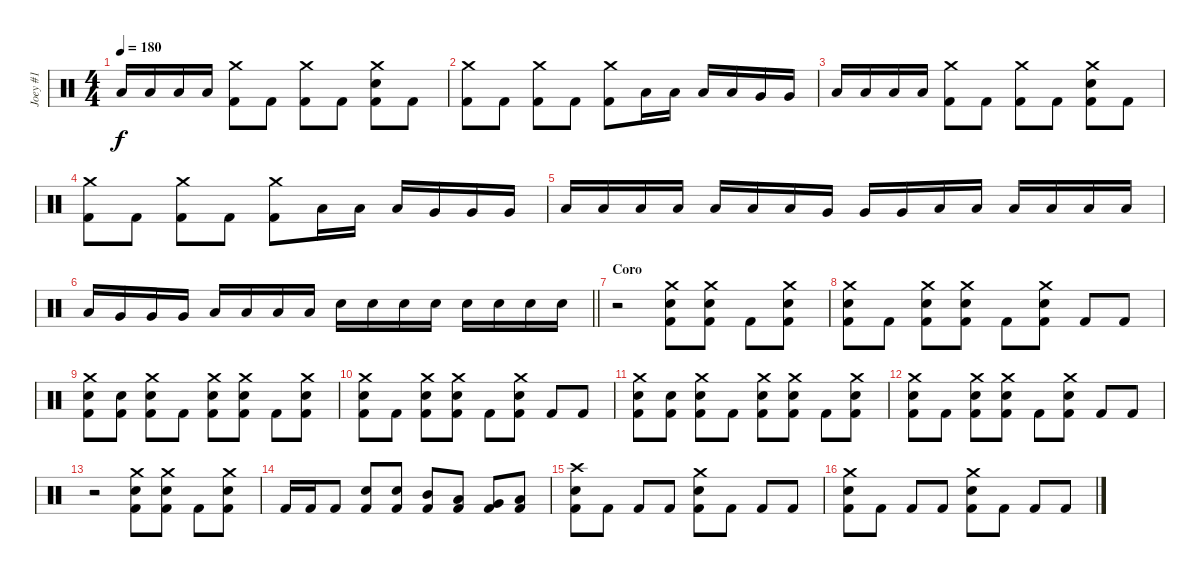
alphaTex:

\track ("Joey #1" "Joey #1") {instrument percussion}
\staff {score}
\articulation defaults
\ts (4 4)
\tempo 180
\clef neutral
\ks c "Low Floor Tom (hit)".16{dy f} "Low Floor Tom (hit)".16 "Low Floor Tom (hit)".16 "Low Floor Tom (hit)".16
("Crash medium (hit)" "Kick (hit) 2").8 "Kick (hit) 2".8 ("Crash medium (hit)" "Kick (hit) 2").8 "Kick (hit) 2".8 ("Crash medium (hit)" "Electric Snare (hit)" "Kick (hit) 2").8 "Kick (hit) 2".8 |
("Crash medium (hit)" "Kick (hit) 2").8 "Kick (hit) 2".8 ("Crash medium (hit)" "Kick (hit) 2").8 "Kick (hit) 2".8 ("Crash medium (hit)" "Kick (hit) 2").8 "Low Tom (hit)".16 "Low Tom (hit)".16 "Low Tom (hit)".16 "Low Tom (hit)".16 "Very Low Tom (hit)".16 "Very Low Tom (hit)".16 |
"Low Floor Tom (hit)".16 "Low Floor Tom (hit)".16 "Low Floor Tom (hit)".16 "Low Floor Tom (hit)".16 ("Crash medium (hit)" "Kick (hit) 2").8 "Kick (hit) 2".8 ("Crash medium (hit)" "Kick (hit) 2").8 "Kick (hit) 2".8 ("Crash medium (hit)" "Electric Snare (hit)" "Kick (hit) 2").8 "Kick (hit) 2".8 |
("Crash medium (hit)" "Kick (hit) 2").8 "Kick (hit) 2".8 ("Crash medium (hit)" "Kick (hit) 2").8 "Kick (hit) 2".8 ("Crash medium (hit)" "Kick (hit) 2").8 "Low Tom (hit)".16 "Low Tom (hit)".16 "Low Tom (hit)".16 "Very Low Tom (hit)".16 "Very Low Tom (hit)".16 "Very Low Tom (hit)".16 |
"Low Floor Tom (hit)".16 "Low Floor Tom (hit)".16 "Low Floor Tom (hit)".16 "Low Floor Tom (hit)".16 "Low Tom (hit)".16 "Low Tom (hit)".16 "Low Tom (hit)".16 "Very Low Tom (hit)".16 "Very Low Tom (hit)".16 "Very Low Tom (hit)".16 "Low Floor Tom (hit)".16 "Low Floor Tom (hit)".16 "Low Floor Tom (hit)".16 "Low Floor Tom (hit)".16 "Low Tom (hit)".16 "Low Tom (hit)".16 |
\barLineRight lightlight "Low Tom (hit)".16 "Very Low Tom (hit)".16 "Very Low Tom (hit)".16 "Very Low Tom (hit)".16 "Low Floor Tom (hit)".16 "Low Floor Tom (hit)".16 "Low Floor Tom (hit)".16 "Low Floor Tom (hit)".16 "Electric Snare (hit)".16 "Electric Snare (hit)".16 "Electric Snare (hit)".16 "Electric Snare (hit)".16 "Electric Snare (hit)".16 "Electric Snare (hit)".16 "Electric Snare (hit)".16 "Electric Snare (hit)".16
|
\section ("" "Coro")
r.2 ("Crash medium (hit)" "Electric Snare (hit)" "Kick (hit) 2").8 ("Crash medium (hit)" "Electric Snare (hit)" "Kick (hit) 2").8 "Kick (hit) 2".8 ("Crash medium (hit)" "Electric Snare (hit)" "Kick (hit) 2").8 |
("Crash medium (hit)" "Electric Snare (hit)" "Kick (hit) 2").8 "Kick (hit) 2".8 ("Crash medium (hit)" "Electric Snare (hit)" "Kick (hit) 2").8 ("Crash medium (hit)" "Electric Snare (hit)" "Kick (hit) 2").8 "Kick (hit) 2".8 ("Crash medium (hit)" "Electric Snare (hit)" "Kick (hit) 2").8 "Kick (hit) 2".8 "Kick (hit) 2".8 |
("Crash medium (hit)" "Electric Snare (hit)" "Kick (hit) 2").8 ("Electric Snare (hit)" "Kick (hit) 2").8 ("Crash medium (hit)" "Electric Snare (hit)" "Kick (hit) 2").8 "Kick (hit) 2".8 ("Crash medium (hit)" "Electric Snare (hit)" "Kick (hit) 2").8 ("Crash medium (hit)" "Electric Snare (hit)" "Kick (hit) 2").8 "Kick (hit) 2".8 ("Crash medium (hit)" "Electric Snare (hit)" "Kick (hit) 2").8 |
("Crash medium (hit)" "Electric Snare (hit)" "Kick (hit) 2").8 "Kick (hit) 2".8 ("Crash medium (hit)" "Electric Snare (hit)" "Kick (hit) 2").8 ("Crash medium (hit)" "Electric Snare (hit)" "Kick (hit) 2").8 "Kick (hit) 2".8 ("Crash medium (hit)" "Electric Snare (hit)" "Kick (hit) 2").8 "Kick (hit) 2".8 "Kick (hit) 2".8 |
("Crash medium (hit)" "Electric Snare (hit)" "Kick (hit) 2").8 ("Electric Snare (hit)" "Kick (hit) 2").8 ("Crash medium (hit)" "Electric Snare (hit)" "Kick (hit) 2").8 "Kick (hit) 2".8 ("Crash medium (hit)" "Electric Snare (hit)" "Kick (hit) 2").8 ("Crash medium (hit)" "Electric Snare (hit)" "Kick (hit) 2").8 "Kick (hit) 2".8 ("Crash medium (hit)" "Electric Snare (hit)" "Kick (hit) 2").8 |
("Crash medium (hit)" "Electric Snare (hit)" "Kick (hit) 2").8 "Kick (hit) 2".8 ("Crash medium (hit)" "Electric Snare (hit)" "Kick (hit) 2").8 ("Crash medium (hit)" "Electric Snare (hit)" "Kick (hit) 2").8 "Kick (hit) 2".8 ("Crash medium (hit)" "Electric Snare (hit)" "Kick (hit) 2").8 "Kick (hit) 2".8 "Kick (hit) 2".8 |
r.2 ("Crash medium (hit)" "Electric Snare (hit)" "Kick (hit) 2").8 ("Crash medium (hit)" "Electric Snare (hit)" "Kick (hit) 2").8 "Kick (hit) 2".8 ("Crash medium (hit)" "Electric Snare (hit)" "Kick (hit) 2").8 |
"Kick (hit) 2".16 "Kick (hit) 2".16 "Kick (hit) 2".8 ("Electric Snare (hit)" "Kick (hit) 2").8 ("Electric Snare (hit)" "Kick (hit) 2").8 ("Mid Tom (hit)" "Kick (hit) 2").8 ("Low Tom (hit)" "Kick (hit) 2").8 ("Very Low Tom (hit)" "Kick (hit) 2").8 ("Low Floor Tom (hit)" "Kick (hit) 2").8 |
("Crash high (hit)" "Electric Snare (hit)" "Kick (hit) 2").8 "Kick (hit) 2".8 "Kick (hit) 2".8 "Kick (hit) 2".8 ("Crash medium (hit)" "Electric Snare (hit)" "Kick (hit) 2").8 "Kick (hit) 2".8 "Kick (hit) 2".8 "Kick (hit) 2".8 |
("Crash medium (hit)" "Electric Snare (hit)" "Kick (hit) 2").8 "Kick (hit) 2".8 "Kick (hit) 2".8 "Kick (hit) 2".8 ("Crash medium (hit)" "Electric Snare (hit)" "Kick (hit) 2").8 "Kick (hit) 2".8 "Kick (hit) 2".8 "Kick (hit) 2".8
